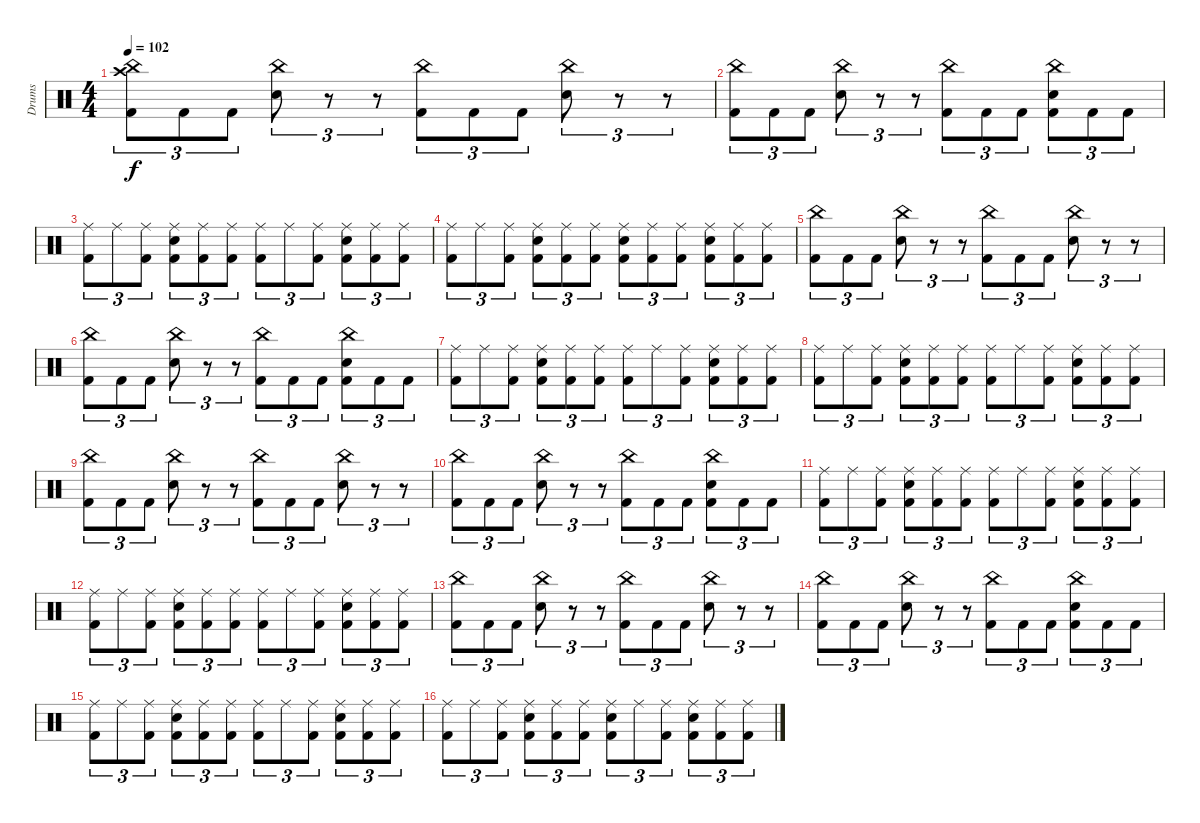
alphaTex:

\track ("Drums" "Drums") {instrument percussion}
\staff {score}
\articulation defaults
\ts (4 4)
\tempo 102
\clef neutral
\ks c
("China (hit)" "Crash high (hit)" "Kick (hit) 2").8{tu (3 2) dy f} "Kick (hit) 2".8{tu (3 2)} "Kick (hit) 2".8{tu (3 2)} ("China (hit)" "Snare (hit) 2").8{tu (3 2)} r.8{tu (3 2)} r.8{tu (3 2)} ("China (hit)" "Kick (hit) 2").8{tu (3 2)} "Kick (hit) 2".8{tu (3 2)} "Kick (hit) 2".8{tu (3 2)} ("China (hit)" "Snare (hit) 2").8{tu (3 2)} r.8{tu (3 2)} r.8{tu (3 2)} |
("China (hit)" "Kick (hit) 2").8{tu (3 2)} "Kick (hit) 2".8{tu (3 2)} "Kick (hit) 2".8{tu (3 2)} ("China (hit)" "Snare (hit) 2").8{tu (3 2)} r.8{tu (3 2)} r.8{tu (3 2)} ("China (hit)" "Kick (hit) 2").8{tu (3 2)} "Kick (hit) 2".8{tu (3 2)} "Kick (hit) 2".8{tu (3 2)} ("China (hit)" "Snare (hit) 2" "Kick (hit) 2").8{tu (3 2)} "Kick (hit) 2".8{tu (3 2)} "Kick (hit) 2".8{tu (3 2)} |
("Ride (middle)" "Kick (hit) 2").8{tu (3 2)} "Ride (middle)".8{tu (3 2)} ("Ride (middle)" "Kick (hit) 2").8{tu (3 2)} ("Ride (middle)" "Snare (hit) 2" "Kick (hit) 2").8{tu (3 2)} ("Ride (middle)" "Kick (hit) 2").8{tu (3 2)} ("Ride (middle)" "Kick (hit) 2").8{tu (3 2)} ("Ride (middle)" "Kick (hit) 2").8{tu (3 2)} "Ride (middle)".8{tu (3 2)} ("Ride (middle)" "Kick (hit) 2").8{tu (3 2)} ("Ride (middle)" "Snare (hit) 2" "Kick (hit) 2").8{tu (3 2)} ("Ride (middle)" "Kick (hit) 2").8{tu (3 2)} ("Ride (middle)" "Kick (hit) 2").8{tu (3 2)} |
("Ride (middle)" "Kick (hit) 2").8{tu (3 2)} "Ride (middle)".8{tu (3 2)} ("Ride (middle)" "Kick (hit) 2").8{tu (3 2)} ("Ride (middle)" "Snare (hit) 2" "Kick (hit) 2").8{tu (3 2)} ("Ride (middle)" "Kick (hit) 2").8{tu (3 2)} ("Ride (middle)" "Kick (hit) 2").8{tu (3 2)} ("Ride (middle)" "Snare (hit) 2" "Kick (hit) 2").8{tu (3 2)} ("Ride (middle)" "Kick (hit) 2").8{tu (3 2)} ("Ride (middle)" "Kick (hit) 2").8{tu (3 2)} ("Ride (middle)" "Snare (hit) 2" "Kick (hit) 2").8{tu (3 2)} ("Ride (middle)" "Kick (hit) 2").8{tu (3 2)} ("Ride (middle)" "Kick (hit) 2").8{tu (3 2)} |
("China (hit)" "Kick (hit) 2").8{tu (3 2)} "Kick (hit) 2".8{tu (3 2)} "Kick (hit) 2".8{tu (3 2)} ("China (hit)" "Snare (hit) 2").8{tu (3 2)} r.8{tu (3 2)} r.8{tu (3 2)} ("China (hit)" "Kick (hit) 2").8{tu (3 2)} "Kick (hit) 2".8{tu (3 2)} "Kick (hit) 2".8{tu (3 2)} ("China (hit)" "Snare (hit) 2").8{tu (3 2)} r.8{tu (3 2)} r.8{tu (3 2)} |
("China (hit)" "Kick (hit) 2").8{tu (3 2)} "Kick (hit) 2".8{tu (3 2)} "Kick (hit) 2".8{tu (3 2)} ("China (hit)" "Snare (hit) 2").8{tu (3 2)} r.8{tu (3 2)} r.8{tu (3 2)} ("China (hit)" "Kick (hit) 2").8{tu (3 2)} "Kick (hit) 2".8{tu (3 2)} "Kick (hit) 2".8{tu (3 2)} ("China (hit)" "Snare (hit) 2" "Kick (hit) 2").8{tu (3 2)} "Kick (hit) 2".8{tu (3 2)} "Kick (hit) 2".8{tu (3 2)} |
("Ride (middle)" "Kick (hit) 2").8{tu (3 2)} "Ride (middle)".8{tu (3 2)} ("Ride (middle)" "Kick (hit) 2").8{tu (3 2)} ("Ride (middle)" "Snare (hit) 2" "Kick (hit) 2").8{tu (3 2)} ("Ride (middle)" "Kick (hit) 2").8{tu (3 2)} ("Ride (middle)" "Kick (hit) 2").8{tu (3 2)} ("Ride (middle)" "Kick (hit) 2").8{tu (3 2)} "Ride (middle)".8{tu (3 2)} ("Ride (middle)" "Kick (hit) 2").8{tu (3 2)} ("Ride (middle)" "Snare (hit) 2" "Kick (hit) 2").8{tu (3 2)} ("Ride (middle)" "Kick (hit) 2").8{tu (3 2)} ("Ride (middle)" "Kick (hit) 2").8{tu (3 2)} |
("Ride (middle)" "Kick (hit) 2").8{tu (3 2)} "Ride (middle)".8{tu (3 2)} ("Ride (middle)" "Kick (hit) 2").8{tu (3 2)} ("Ride (middle)" "Snare (hit) 2" "Kick (hit) 2").8{tu (3 2)} ("Ride (middle)" "Kick (hit) 2").8{tu (3 2)} ("Ride (middle)" "Kick (hit) 2").8{tu (3 2)} ("Ride (middle)" "Kick (hit) 2").8{tu (3 2)} "Ride (middle)".8{tu (3 2)} ("Ride (middle)" "Kick (hit) 2").8{tu (3 2)} ("Ride (middle)" "Snare (hit) 2" "Kick (hit) 2").8{tu (3 2)} ("Ride (middle)" "Kick (hit) 2").8{tu (3 2)} ("Ride (middle)" "Kick (hit) 2").8{tu (3 2)} |
("China (hit)" "Kick (hit) 2").8{tu (3 2)} "Kick (hit) 2".8{tu (3 2)} "Kick (hit) 2".8{tu (3 2)} ("China (hit)" "Snare (hit) 2").8{tu (3 2)} r.8{tu (3 2)} r.8{tu (3 2)} ("China (hit)" "Kick (hit) 2").8{tu (3 2)} "Kick (hit) 2".8{tu (3 2)} "Kick (hit) 2".8{tu (3 2)} ("China (hit)" "Snare (hit) 2").8{tu (3 2)} r.8{tu (3 2)} r.8{tu (3 2)} |
("China (hit)" "Kick (hit) 2").8{tu (3 2)} "Kick (hit) 2".8{tu (3 2)} "Kick (hit) 2".8{tu (3 2)} ("China (hit)" "Snare (hit) 2").8{tu (3 2)} r.8{tu (3 2)} r.8{tu (3 2)} ("China (hit)" "Kick (hit) 2").8{tu (3 2)} "Kick (hit) 2".8{tu (3 2)} "Kick (hit) 2".8{tu (3 2)} ("China (hit)" "Snare (hit) 2" "Kick (hit) 2").8{tu (3 2)} "Kick (hit) 2".8{tu (3 2)} "Kick (hit) 2".8{tu (3 2)} |
("Ride (middle)" "Kick (hit) 2").8{tu (3 2)} "Ride (middle)".8{tu (3 2)} ("Ride (middle)" "Kick (hit) 2").8{tu (3 2)} ("Ride (middle)" "Snare (hit) 2" "Kick (hit) 2").8{tu (3 2)} ("Ride (middle)" "Kick (hit) 2").8{tu (3 2)} ("Ride (middle)" "Kick (hit) 2").8{tu (3 2)} ("Ride (middle)" "Kick (hit) 2").8{tu (3 2)} "Ride (middle)".8{tu (3 2)} ("Ride (middle)" "Kick (hit) 2").8{tu (3 2)} ("Ride (middle)" "Snare (hit) 2" "Kick (hit) 2").8{tu (3 2)} ("Ride (middle)" "Kick (hit) 2").8{tu (3 2)} ("Ride (middle)" "Kick (hit) 2").8{tu (3 2)} |
("Ride (middle)" "Kick (hit) 2").8{tu (3 2)} "Ride (middle)".8{tu (3 2)} ("Ride (middle)" "Kick (hit) 2").8{tu (3 2)} ("Ride (middle)" "Snare (hit) 2" "Kick (hit) 2").8{tu (3 2)} ("Ride (middle)" "Kick (hit) 2").8{tu (3 2)} ("Ride (middle)" "Kick (hit) 2").8{tu (3 2)} ("Ride (middle)" "Kick (hit) 2").8{tu (3 2)} "Ride (middle)".8{tu (3 2)} ("Ride (middle)" "Kick (hit) 2").8{tu (3 2)} ("Ride (middle)" "Snare (hit) 2" "Kick (hit) 2").8{tu (3 2)} ("Ride (middle)" "Kick (hit) 2").8{tu (3 2)} ("Ride (middle)" "Kick (hit) 2").8{tu (3 2)} |
("China (hit)" "Kick (hit) 2").8{tu (3 2)} "Kick (hit) 2".8{tu (3 2)} "Kick (hit) 2".8{tu (3 2)} ("China (hit)" "Snare (hit) 2").8{tu (3 2)} r.8{tu (3 2)} r.8{tu (3 2)} ("China (hit)" "Kick (hit) 2").8{tu (3 2)} "Kick (hit) 2".8{tu (3 2)} "Kick (hit) 2".8{tu (3 2)} ("China (hit)" "Snare (hit) 2").8{tu (3 2)} r.8{tu (3 2)} r.8{tu (3 2)} |
("China (hit)" "Kick (hit) 2").8{tu (3 2)} "Kick (hit) 2".8{tu (3 2)} "Kick (hit) 2".8{tu (3 2)} ("China (hit)" "Snare (hit) 2").8{tu (3 2)} r.8{tu (3 2)} r.8{tu (3 2)} ("China (hit)" "Kick (hit) 2").8{tu (3 2)} "Kick (hit) 2".8{tu (3 2)} "Kick (hit) 2".8{tu (3 2)} ("China (hit)" "Snare (hit) 2" "Kick (hit) 2").8{tu (3 2)} "Kick (hit) 2".8{tu (3 2)} "Kick (hit) 2".8{tu (3 2)} |
("Ride (middle)" "Kick (hit) 2").8{tu (3 2)} "Ride (middle)".8{tu (3 2)} ("Ride (middle)" "Kick (hit) 2").8{tu (3 2)} ("Ride (middle)" "Snare (hit) 2" "Kick (hit) 2").8{tu (3 2)} ("Ride (middle)" "Kick (hit) 2").8{tu (3 2)} ("Ride (middle)" "Kick (hit) 2").8{tu (3 2)} ("Ride (middle)" "Kick (hit) 2").8{tu (3 2)} "Ride (middle)".8{tu (3 2)} ("Ride (middle)" "Kick (hit) 2").8{tu (3 2)} ("Ride (middle)" "Snare (hit) 2" "Kick (hit) 2").8{tu (3 2)} ("Ride (middle)" "Kick (hit) 2").8{tu (3 2)} ("Ride (middle)" "Kick (hit) 2").8{tu (3 2)} |
("Ride (middle)" "Kick (hit) 2").8{tu (3 2)} "Ride (middle)".8{tu (3 2)} ("Ride (middle)" "Kick (hit) 2").8{tu (3 2)} ("Ride (middle)" "Snare (hit) 2" "Kick (hit) 2").8{tu (3 2)} ("Ride (middle)" "Kick (hit) 2").8{tu (3 2)} ("Ride (middle)" "Kick (hit) 2").8{tu (3 2)} ("Ride (middle)" "Snare (hit) 2" "Kick (hit) 2").8{tu (3 2)} "Ride (middle)".8{tu (3 2)} ("Ride (middle)" "Kick (hit) 2").8{tu (3 2)} ("Ride (middle)" "Snare (hit) 2" "Kick (hit) 2").8{tu (3 2)} ("Ride (middle)" "Kick (hit) 2").8{tu (3 2)} ("Ride (middle)" "Kick (hit) 2").8{tu (3 2)}
